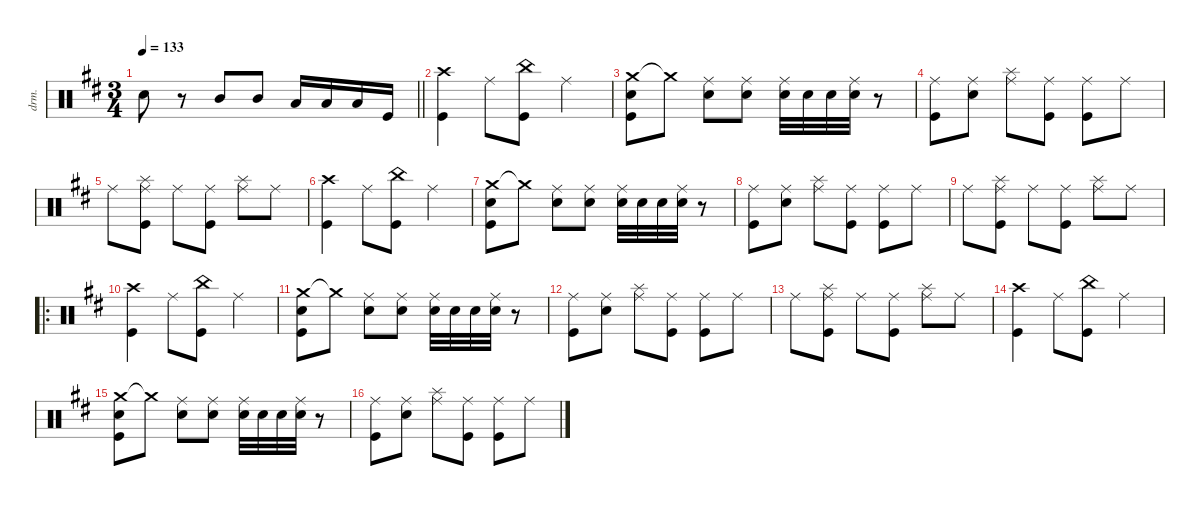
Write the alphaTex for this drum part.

\defaultSystemsLayout 4
\hideDynamics
\bracketExtendMode nobrackets
\otherSystemsTrackNameOrientation horizontal
\track ("Drums" "drm.") {defaultSystemsLayout 4 instrument percussion}
\staff {score}
\articulation defaults
\ts (3 4)
\tempo 133
\clef neutral
\barLineRight lightlight
\ks bminor "Snare (hit) 2"{acc forcenatural}.8{dy f beam Down}
r.8{beam Down} "Mid Tom (hit)"{acc forcenatural}.8{dy p beam Up} "Mid Tom (hit)"{acc forcenatural}.8{beam Up} "Low Tom (hit)"{acc forcenatural}.16{dy f beam Up} "Low Tom (hit)"{acc forcenatural}.16{beam Up} "Low Tom (hit)"{acc forcenatural}.16{beam Up} "Kick (hit)"{acc forcenatural}.16{beam Up} |
("Crash high (hit)"{acc forcenatural} "Kick (hit)"{acc forcenatural}).4{dy p beam Down} "Ride (middle)"{acc forcenatural}.8{dy f beam Down} ("China (hit)"{acc forcenatural} "Kick (hit)"{acc forcenatural}).8{dy mf beam Down} "Ride (middle)"{acc forcenatural}.4{dy f beam Down} |
("Crash medium (hit)"{acc forcenatural} "Snare (hit) 2"{acc forcenatural} "Kick (hit)"{acc forcenatural}).8{dy mp beam Down} "Crash medium (hit)"{t acc forcenatural}.8{dy f beam Down} ("Ride (middle)"{acc forcenatural} "Snare (hit) 2"{acc forcenatural}).8{beam Down} ("Ride (middle)"{acc forcenatural} "Snare (hit) 2"{acc forcenatural}).8{dy pp beam Down} ("Ride (middle)"{acc forcenatural} "Snare (hit) 2"{acc forcenatural}).32{dy p beam Down} "Snare (hit) 2"{acc forcenatural}.32{dy pp beam Down} "Snare (hit) 2"{acc forcenatural}.32{beam Down} ("Ride (middle)"{acc forcenatural} "Snare (hit) 2"{acc forcenatural}).32{dy f beam Down} r.8{beam Down} |
("Ride (middle)"{acc forcenatural} "Kick (hit)"{acc forcenatural}).8{dy p beam Down} ("Ride (middle)"{acc forcenatural} "Snare (hit) 2"{acc forcenatural}).8{dy pp beam Down} ("Ride (middle)"{acc forcenatural} "Splash (hit)"{acc forcenatural}).8{dy f beam Down} ("Ride (middle)"{acc forcenatural} "Kick (hit)"{acc forcenatural}).8{dy p beam Down} ("Ride (middle)"{acc forcenatural} "Kick (hit)"{acc forcenatural}).8{dy mp beam Down} "Ride (middle)"{acc forcenatural}.8{dy mf beam Down} |
"Ride (middle)"{acc forcenatural}.8{dy mp beam Down} ("Ride (middle)"{acc forcenatural} "Splash (hit)"{acc forcenatural} "Kick (hit)"{acc forcenatural}).8{dy f beam Down} "Ride (middle)"{acc forcenatural}.8{dy mp beam Down} ("Ride (middle)"{acc forcenatural} "Kick (hit)"{acc forcenatural}).8{dy p beam Down} ("Ride (middle)"{acc forcenatural} "Splash (hit)"{acc forcenatural}).8{dy f beam Down} "Ride (middle)"{acc forcenatural}.8{beam Down} |
("Crash high (hit)"{acc forcenatural} "Kick (hit)"{acc forcenatural}).4{dy p beam Down} "Ride (middle)"{acc forcenatural}.8{dy f beam Down} ("China (hit)"{acc forcenatural} "Kick (hit)"{acc forcenatural}).8{dy mf beam Down} "Ride (middle)"{acc forcenatural}.4{dy f beam Down} |
("Crash medium (hit)"{acc forcenatural} "Snare (hit) 2"{acc forcenatural} "Kick (hit)"{acc forcenatural}).8{dy mp beam Down} "Crash medium (hit)"{t acc forcenatural}.8{dy f beam Down} ("Ride (middle)"{acc forcenatural} "Snare (hit) 2"{acc forcenatural}).8{beam Down} ("Ride (middle)"{acc forcenatural} "Snare (hit) 2"{acc forcenatural}).8{dy pp beam Down} ("Ride (middle)"{acc forcenatural} "Snare (hit) 2"{acc forcenatural}).32{dy p beam Down} "Snare (hit) 2"{acc forcenatural}.32{dy pp beam Down} "Snare (hit) 2"{acc forcenatural}.32{beam Down} ("Ride (middle)"{acc forcenatural} "Snare (hit) 2"{acc forcenatural}).32{dy f beam Down} r.8{beam Down} |
("Ride (middle)"{acc forcenatural} "Kick (hit)"{acc forcenatural}).8{dy p beam Down} ("Ride (middle)"{acc forcenatural} "Snare (hit) 2"{acc forcenatural}).8{dy pp beam Down} ("Ride (middle)"{acc forcenatural} "Splash (hit)"{acc forcenatural}).8{dy f beam Down} ("Ride (middle)"{acc forcenatural} "Kick (hit)"{acc forcenatural}).8{dy p beam Down} ("Ride (middle)"{acc forcenatural} "Kick (hit)"{acc forcenatural}).8{dy mp beam Down} "Ride (middle)"{acc forcenatural}.8{dy mf beam Down} |
"Ride (middle)"{acc forcenatural}.8{dy mp beam Down} ("Ride (middle)"{acc forcenatural} "Splash (hit)"{acc forcenatural} "Kick (hit)"{acc forcenatural}).8{dy f beam Down} "Ride (middle)"{acc forcenatural}.8{dy mp beam Down} ("Ride (middle)"{acc forcenatural} "Kick (hit)"{acc forcenatural}).8{dy p beam Down} ("Ride (middle)"{acc forcenatural} "Splash (hit)"{acc forcenatural}).8{dy f beam Down} "Ride (middle)"{acc forcenatural}.8{beam Down} |
\ro
("Crash high (hit)"{acc forcenatural} "Kick (hit)"{acc forcenatural}).4{dy p beam Down} "Ride (middle)"{acc forcenatural}.8{dy f beam Down} ("China (hit)"{acc forcenatural} "Kick (hit)"{acc forcenatural}).8{dy mf beam Down} "Ride (middle)"{acc forcenatural}.4{dy f beam Down} |
("Crash medium (hit)"{acc forcenatural} "Snare (hit) 2"{acc forcenatural} "Kick (hit)"{acc forcenatural}).8{dy mp beam Down} "Crash medium (hit)"{t acc forcenatural}.8{dy f beam Down} ("Ride (middle)"{acc forcenatural} "Snare (hit) 2"{acc forcenatural}).8{beam Down} ("Ride (middle)"{acc forcenatural} "Snare (hit) 2"{acc forcenatural}).8{dy pp beam Down} ("Ride (middle)"{acc forcenatural} "Snare (hit) 2"{acc forcenatural}).32{dy p beam Down} "Snare (hit) 2"{acc forcenatural}.32{dy pp beam Down} "Snare (hit) 2"{acc forcenatural}.32{beam Down} ("Ride (middle)"{acc forcenatural} "Snare (hit) 2"{acc forcenatural}).32{dy f beam Down} r.8{beam Down} |
("Ride (middle)"{acc forcenatural} "Kick (hit)"{acc forcenatural}).8{dy p beam Down} ("Ride (middle)"{acc forcenatural} "Snare (hit) 2"{acc forcenatural}).8{dy pp beam Down} ("Ride (middle)"{acc forcenatural} "Splash (hit)"{acc forcenatural}).8{dy f beam Down} ("Ride (middle)"{acc forcenatural} "Kick (hit)"{acc forcenatural}).8{dy p beam Down} ("Ride (middle)"{acc forcenatural} "Kick (hit)"{acc forcenatural}).8{dy mp beam Down} "Ride (middle)"{acc forcenatural}.8{dy mf beam Down} |
"Ride (middle)"{acc forcenatural}.8{dy mp beam Down} ("Ride (middle)"{acc forcenatural} "Splash (hit)"{acc forcenatural} "Kick (hit)"{acc forcenatural}).8{dy f beam Down} "Ride (middle)"{acc forcenatural}.8{dy mp beam Down} ("Ride (middle)"{acc forcenatural} "Kick (hit)"{acc forcenatural}).8{dy p beam Down} ("Ride (middle)"{acc forcenatural} "Splash (hit)"{acc forcenatural}).8{dy f beam Down} "Ride (middle)"{acc forcenatural}.8{beam Down} |
("Crash high (hit)"{acc forcenatural} "Kick (hit)"{acc forcenatural}).4{dy p beam Down} "Ride (middle)"{acc forcenatural}.8{dy f beam Down} ("China (hit)"{acc forcenatural} "Kick (hit)"{acc forcenatural}).8{dy mf beam Down} "Ride (middle)"{acc forcenatural}.4{dy f beam Down} |
("Crash medium (hit)"{acc forcenatural} "Snare (hit) 2"{acc forcenatural} "Kick (hit)"{acc forcenatural}).8{dy mp beam Down} "Crash medium (hit)"{t acc forcenatural}.8{dy f beam Down} ("Ride (middle)"{acc forcenatural} "Snare (hit) 2"{acc forcenatural}).8{beam Down} ("Ride (middle)"{acc forcenatural} "Snare (hit) 2"{acc forcenatural}).8{dy pp beam Down} ("Ride (middle)"{acc forcenatural} "Snare (hit) 2"{acc forcenatural}).32{dy p beam Down} "Snare (hit) 2"{acc forcenatural}.32{dy pp beam Down} "Snare (hit) 2"{acc forcenatural}.32{beam Down} ("Ride (middle)"{acc forcenatural} "Snare (hit) 2"{acc forcenatural}).32{dy f beam Down} r.8{beam Down} |
("Ride (middle)"{acc forcenatural} "Kick (hit)"{acc forcenatural}).8{dy p beam Down} ("Ride (middle)"{acc forcenatural} "Snare (hit) 2"{acc forcenatural}).8{dy pp beam Down} ("Ride (middle)"{acc forcenatural} "Splash (hit)"{acc forcenatural}).8{dy f beam Down} ("Ride (middle)"{acc forcenatural} "Kick (hit)"{acc forcenatural}).8{dy p beam Down} ("Ride (middle)"{acc forcenatural} "Kick (hit)"{acc forcenatural}).8{dy mp beam Down} "Ride (middle)"{acc forcenatural}.8{dy mf beam Down}
